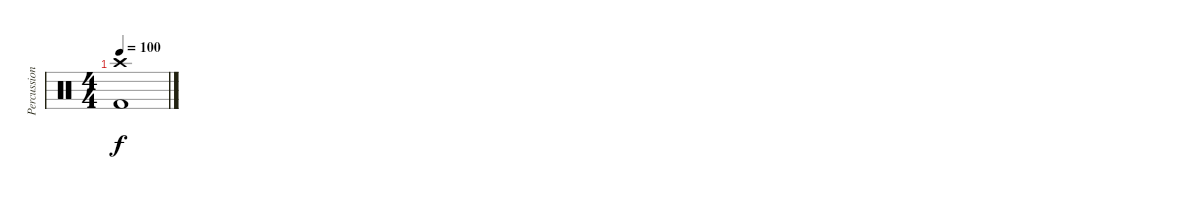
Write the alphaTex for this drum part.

\track ("Percussion" "Percussion") {instrument percussion}
\staff {score}
\articulation defaults
\ts (4 4)
\tempo 100
\clef neutral
\ks c
("Crash high (hit)" "Kick (hit) 2").1{dy f}
